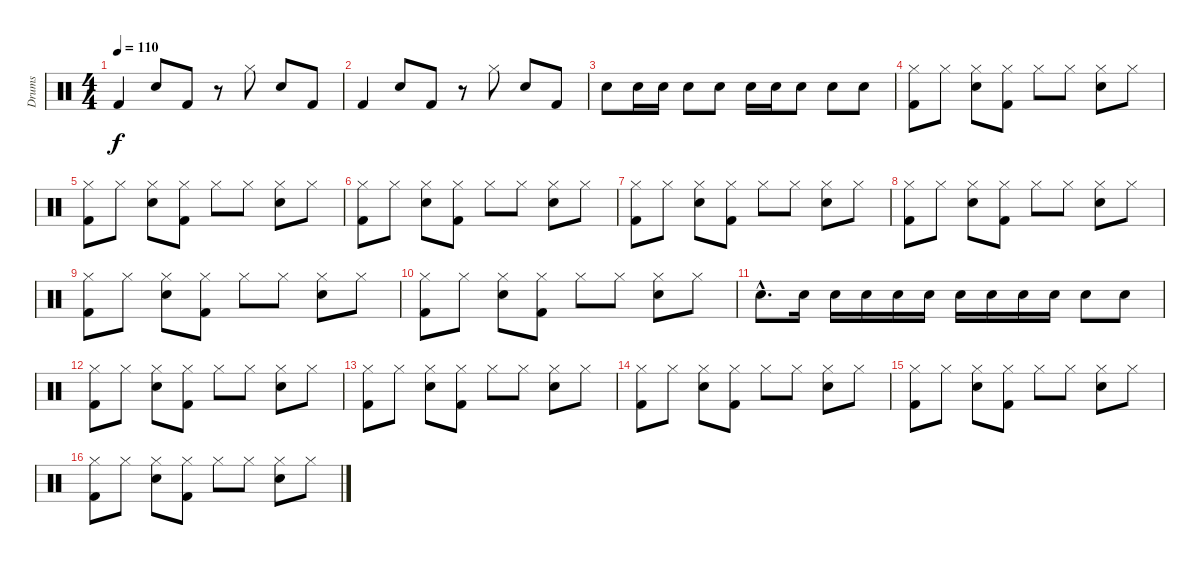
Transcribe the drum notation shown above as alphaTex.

\track ("Drums" "Drums") {instrument percussion}
\staff {score}
\articulation defaults
\ts (4 4)
\tempo 110
\clef neutral
\ks c "Kick (hit) 2".4{dy f} "Snare (hit) 2".8 "Kick (hit) 2".8
r.8 "Hi-Hat (closed)".8 "Snare (hit) 2".8 "Kick (hit) 2".8 |
"Kick (hit) 2".4 "Snare (hit) 2".8 "Kick (hit) 2".8 r.8 "Hi-Hat (closed)".8 "Snare (hit) 2".8 "Kick (hit) 2".8 |
"Snare (hit) 2".8 "Snare (hit) 2".16 "Snare (hit) 2".16 "Snare (hit) 2".8 "Snare (hit) 2".8 "Snare (hit) 2".16 "Snare (hit) 2".16 "Snare (hit) 2".8 "Snare (hit) 2".8 "Snare (hit) 2".8 |
("Hi-Hat (closed)" "Kick (hit) 2").8 "Hi-Hat (closed)".8 ("Hi-Hat (closed)" "Snare (hit) 2").8 ("Hi-Hat (closed)" "Kick (hit) 2").8 "Hi-Hat (closed)".8 "Hi-Hat (closed)".8 ("Hi-Hat (closed)" "Snare (hit) 2").8 "Hi-Hat (closed)".8 |
("Hi-Hat (closed)" "Kick (hit) 2").8 "Hi-Hat (closed)".8 ("Hi-Hat (closed)" "Snare (hit) 2").8 ("Hi-Hat (closed)" "Kick (hit) 2").8 "Hi-Hat (closed)".8 "Hi-Hat (closed)".8 ("Hi-Hat (closed)" "Snare (hit) 2").8 "Hi-Hat (closed)".8 |
("Hi-Hat (closed)" "Kick (hit) 2").8 "Hi-Hat (closed)".8 ("Hi-Hat (closed)" "Snare (hit) 2").8 ("Hi-Hat (closed)" "Kick (hit) 2").8 "Hi-Hat (closed)".8 "Hi-Hat (closed)".8 ("Hi-Hat (closed)" "Snare (hit) 2").8 "Hi-Hat (closed)".8 |
("Hi-Hat (closed)" "Kick (hit) 2").8 "Hi-Hat (closed)".8 ("Hi-Hat (closed)" "Snare (hit) 2").8 ("Hi-Hat (closed)" "Kick (hit) 2").8 "Hi-Hat (closed)".8 "Hi-Hat (closed)".8 ("Hi-Hat (closed)" "Snare (hit) 2").8 "Hi-Hat (closed)".8 |
("Hi-Hat (closed)" "Kick (hit) 2").8 "Hi-Hat (closed)".8 ("Hi-Hat (closed)" "Snare (hit) 2").8 ("Hi-Hat (closed)" "Kick (hit) 2").8 "Hi-Hat (closed)".8 "Hi-Hat (closed)".8 ("Hi-Hat (closed)" "Snare (hit) 2").8 "Hi-Hat (closed)".8 |
("Hi-Hat (closed)" "Kick (hit) 2").8 "Hi-Hat (closed)".8 ("Hi-Hat (closed)" "Snare (hit) 2").8 ("Hi-Hat (closed)" "Kick (hit) 2").8 "Hi-Hat (closed)".8 "Hi-Hat (closed)".8 ("Hi-Hat (closed)" "Snare (hit) 2").8 "Hi-Hat (closed)".8 |
("Hi-Hat (closed)" "Kick (hit) 2").8 "Hi-Hat (closed)".8 ("Hi-Hat (closed)" "Snare (hit) 2").8 ("Hi-Hat (closed)" "Kick (hit) 2").8 "Hi-Hat (closed)".8 "Hi-Hat (closed)".8 ("Hi-Hat (closed)" "Snare (hit) 2").8 "Hi-Hat (closed)".8 |
"Snare (hit) 2"{hac}.8{d} "Snare (hit) 2".16 "Snare (hit) 2".16 "Snare (hit) 2".16 "Snare (hit) 2".16 "Snare (hit) 2".16 "Snare (hit) 2".16 "Snare (hit) 2".16 "Snare (hit) 2".16 "Snare (hit) 2".16 "Snare (hit) 2".8 "Snare (hit) 2".8 |
("Hi-Hat (closed)" "Kick (hit) 2").8 "Hi-Hat (closed)".8 ("Hi-Hat (closed)" "Snare (hit) 2").8 ("Hi-Hat (closed)" "Kick (hit) 2").8 "Hi-Hat (closed)".8 "Hi-Hat (closed)".8 ("Hi-Hat (closed)" "Snare (hit) 2").8 "Hi-Hat (closed)".8 |
("Hi-Hat (closed)" "Kick (hit) 2").8 "Hi-Hat (closed)".8 ("Hi-Hat (closed)" "Snare (hit) 2").8 ("Hi-Hat (closed)" "Kick (hit) 2").8 "Hi-Hat (closed)".8 "Hi-Hat (closed)".8 ("Hi-Hat (closed)" "Snare (hit) 2").8 "Hi-Hat (closed)".8 |
("Hi-Hat (closed)" "Kick (hit) 2").8 "Hi-Hat (closed)".8 ("Hi-Hat (closed)" "Snare (hit) 2").8 ("Hi-Hat (closed)" "Kick (hit) 2").8 "Hi-Hat (closed)".8 "Hi-Hat (closed)".8 ("Hi-Hat (closed)" "Snare (hit) 2").8 "Hi-Hat (closed)".8 |
("Hi-Hat (closed)" "Kick (hit) 2").8 "Hi-Hat (closed)".8 ("Hi-Hat (closed)" "Snare (hit) 2").8 ("Hi-Hat (closed)" "Kick (hit) 2").8 "Hi-Hat (closed)".8 "Hi-Hat (closed)".8 ("Hi-Hat (closed)" "Snare (hit) 2").8 "Hi-Hat (closed)".8 |
("Hi-Hat (closed)" "Kick (hit) 2").8 "Hi-Hat (closed)".8 ("Hi-Hat (closed)" "Snare (hit) 2").8 ("Hi-Hat (closed)" "Kick (hit) 2").8 "Hi-Hat (closed)".8 "Hi-Hat (closed)".8 ("Hi-Hat (closed)" "Snare (hit) 2").8 "Hi-Hat (closed)".8
